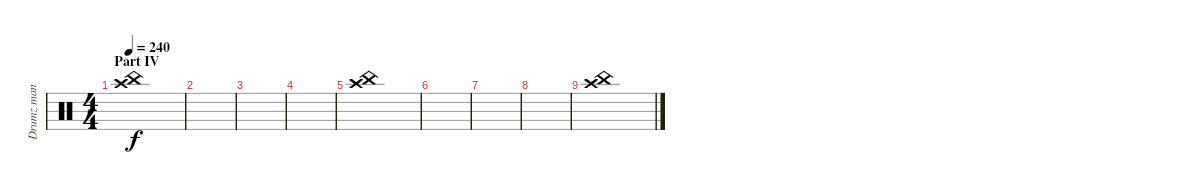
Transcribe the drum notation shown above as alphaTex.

\track ("Drumz man" "Drumz man") {instrument percussion}
\staff {score}
\articulation defaults
\ts (4 4)
\section ("" "Part IV")
\tempo 240
\clef neutral
\ks c
("Crash high (hit)" "China (hit)").1{dy f} |
|
|
|
("Crash high (hit)" "China (hit)").1 |
|
|
|
("Crash high (hit)" "China (hit)").1
